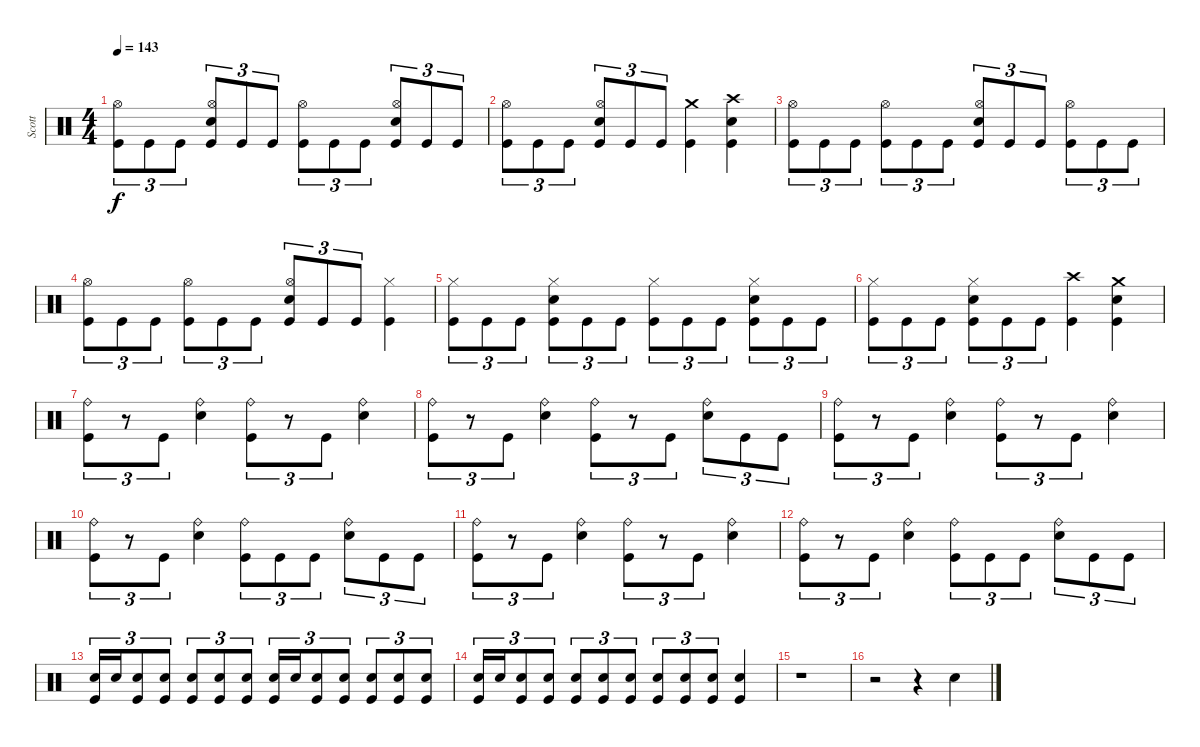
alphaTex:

\track ("Scott" "Scott") {instrument percussion}
\staff {score}
\articulation defaults
\ts (4 4)
\tempo 143
\clef neutral
\ks c
("Kick (hit)" "Hi-Hat (open)").8{tu (3 2) dy f} "Kick (hit)".8{tu (3 2)} "Kick (hit)".8{tu (3 2)} ("Kick (hit)" "Snare (hit) 2" "Hi-Hat (open)").8{tu (3 2)} "Kick (hit)".8{tu (3 2)} "Kick (hit)".8{tu (3 2)} ("Kick (hit)" "Hi-Hat (open)").8{tu (3 2)} "Kick (hit)".8{tu (3 2)} "Kick (hit)".8{tu (3 2)} ("Kick (hit)" "Snare (hit) 2" "Hi-Hat (open)").8{tu (3 2)} "Kick (hit)".8{tu (3 2)} "Kick (hit)".8{tu (3 2)} |
("Kick (hit)" "Hi-Hat (open)").8{tu (3 2)} "Kick (hit)".8{tu (3 2)} "Kick (hit)".8{tu (3 2)} ("Kick (hit)" "Snare (hit) 2" "Hi-Hat (open)").8{tu (3 2)} "Kick (hit)".8{tu (3 2)} "Kick (hit)".8{tu (3 2)} ("Kick (hit)" "Crash medium (hit)").4 ("Kick (hit)" "Snare (hit) 2" "Crash high (hit)").4 |
("Kick (hit)" "Hi-Hat (open)").8{tu (3 2)} "Kick (hit)".8{tu (3 2)} "Kick (hit)".8{tu (3 2)} ("Kick (hit)" "Hi-Hat (open)").8{tu (3 2)} "Kick (hit)".8{tu (3 2)} "Kick (hit)".8{tu (3 2)} ("Kick (hit)" "Snare (hit) 2" "Hi-Hat (open)").8{tu (3 2)} "Kick (hit)".8{tu (3 2)} "Kick (hit)".8{tu (3 2)} ("Kick (hit)" "Hi-Hat (open)").8{tu (3 2)} "Kick (hit)".8{tu (3 2)} "Kick (hit)".8{tu (3 2)} |
("Kick (hit)" "Hi-Hat (open)").8{tu (3 2)} "Kick (hit)".8{tu (3 2)} "Kick (hit)".8{tu (3 2)} ("Kick (hit)" "Hi-Hat (open)").8{tu (3 2)} "Kick (hit)".8{tu (3 2)} "Kick (hit)".8{tu (3 2)} ("Kick (hit)" "Snare (hit) 2" "Hi-Hat (open)").8{tu (3 2)} "Kick (hit)".8{tu (3 2)} "Kick (hit)".8{tu (3 2)} ("Kick (hit)" "Hi-Hat (closed)").4 |
("Kick (hit)" "Hi-Hat (closed)").8{tu (3 2)} "Kick (hit)".8{tu (3 2)} "Kick (hit)".8{tu (3 2)} ("Kick (hit)" "Snare (hit) 2" "Hi-Hat (closed)").8{tu (3 2)} "Kick (hit)".8{tu (3 2)} "Kick (hit)".8{tu (3 2)} ("Kick (hit)" "Hi-Hat (closed)").8{tu (3 2)} "Kick (hit)".8{tu (3 2)} "Kick (hit)".8{tu (3 2)} ("Kick (hit)" "Snare (hit) 2" "Hi-Hat (closed)").8{tu (3 2)} "Kick (hit)".8{tu (3 2)} "Kick (hit)".8{tu (3 2)} |
("Kick (hit)" "Hi-Hat (closed)").8{tu (3 2)} "Kick (hit)".8{tu (3 2)} "Kick (hit)".8{tu (3 2)} ("Kick (hit)" "Snare (hit) 2" "Hi-Hat (closed)").8{tu (3 2)} "Kick (hit)".8{tu (3 2)} "Kick (hit)".8{tu (3 2)} ("Kick (hit)" "Crash high (hit)").4 ("Kick (hit)" "Snare (hit) 2" "Crash medium (hit)").4 |
("Kick (hit)" "Ride (bell)").8{tu (3 2)} r.8{tu (3 2)} "Kick (hit)".8{tu (3 2)} ("Snare (hit) 2" "Ride (bell)").4 ("Kick (hit)" "Ride (bell)").8{tu (3 2)} r.8{tu (3 2)} "Kick (hit)".8{tu (3 2)} ("Snare (hit) 2" "Ride (bell)").4 |
("Kick (hit)" "Ride (bell)").8{tu (3 2)} r.8{tu (3 2)} "Kick (hit)".8{tu (3 2)} ("Snare (hit) 2" "Ride (bell)").4 ("Kick (hit)" "Ride (bell)").8{tu (3 2)} r.8{tu (3 2)} "Kick (hit)".8{tu (3 2)} ("Snare (hit) 2" "Ride (bell)").8{tu (3 2)} "Kick (hit)".8{tu (3 2)} "Kick (hit)".8{tu (3 2)} |
("Kick (hit)" "Ride (bell)").8{tu (3 2)} r.8{tu (3 2)} "Kick (hit)".8{tu (3 2)} ("Snare (hit) 2" "Ride (bell)").4 ("Kick (hit)" "Ride (bell)").8{tu (3 2)} r.8{tu (3 2)} "Kick (hit)".8{tu (3 2)} ("Snare (hit) 2" "Ride (bell)").4 |
("Kick (hit)" "Ride (bell)").8{tu (3 2)} r.8{tu (3 2)} "Kick (hit)".8{tu (3 2)} ("Snare (hit) 2" "Ride (bell)").4 ("Kick (hit)" "Ride (bell)").8{tu (3 2)} "Kick (hit)".8{tu (3 2)} "Kick (hit)".8{tu (3 2)} ("Snare (hit) 2" "Ride (bell)").8{tu (3 2)} "Kick (hit)".8{tu (3 2)} "Kick (hit)".8{tu (3 2)} |
("Kick (hit)" "Ride (bell)").8{tu (3 2)} r.8{tu (3 2)} "Kick (hit)".8{tu (3 2)} ("Snare (hit) 2" "Ride (bell)").4 ("Kick (hit)" "Ride (bell)").8{tu (3 2)} r.8{tu (3 2)} "Kick (hit)".8{tu (3 2)} ("Snare (hit) 2" "Ride (bell)").4 |
("Kick (hit)" "Ride (bell)").8{tu (3 2)} r.8{tu (3 2)} "Kick (hit)".8{tu (3 2)} ("Snare (hit) 2" "Ride (bell)").4 ("Kick (hit)" "Ride (bell)").8{tu (3 2)} "Kick (hit)".8{tu (3 2)} "Kick (hit)".8{tu (3 2)} ("Snare (hit) 2" "Ride (bell)").8{tu (3 2)} "Kick (hit)".8{tu (3 2)} "Kick (hit)".8{tu (3 2)} |
("Kick (hit)" "Snare (hit) 2").16{tu (3 2)} "Snare (hit) 2".16{tu (3 2)} ("Kick (hit)" "Snare (hit) 2").8{tu (3 2)} ("Kick (hit)" "Snare (hit) 2").8{tu (3 2)} ("Kick (hit)" "Snare (hit) 2").8{tu (3 2)} ("Kick (hit)" "Snare (hit) 2").8{tu (3 2)} ("Kick (hit)" "Snare (hit) 2").8{tu (3 2)} ("Kick (hit)" "Snare (hit) 2").16{tu (3 2)} "Snare (hit) 2".16{tu (3 2)} ("Kick (hit)" "Snare (hit) 2").8{tu (3 2)} ("Kick (hit)" "Snare (hit) 2").8{tu (3 2)} ("Kick (hit)" "Snare (hit) 2").8{tu (3 2)} ("Kick (hit)" "Snare (hit) 2").8{tu (3 2)} ("Kick (hit)" "Snare (hit) 2").8{tu (3 2)} |
("Kick (hit)" "Snare (hit) 2").16{tu (3 2)} "Snare (hit) 2".16{tu (3 2)} ("Kick (hit)" "Snare (hit) 2").8{tu (3 2)} ("Kick (hit)" "Snare (hit) 2").8{tu (3 2)} ("Kick (hit)" "Snare (hit) 2").8{tu (3 2)} ("Kick (hit)" "Snare (hit) 2").8{tu (3 2)} ("Kick (hit)" "Snare (hit) 2").8{tu (3 2)} ("Kick (hit)" "Snare (hit) 2").8{tu (3 2)} ("Kick (hit)" "Snare (hit) 2").8{tu (3 2)} ("Kick (hit)" "Snare (hit) 2").8{tu (3 2)} ("Kick (hit)" "Snare (hit) 2").4 |
r.1 |
r.2 r.4 "Snare (hit) 2".4
